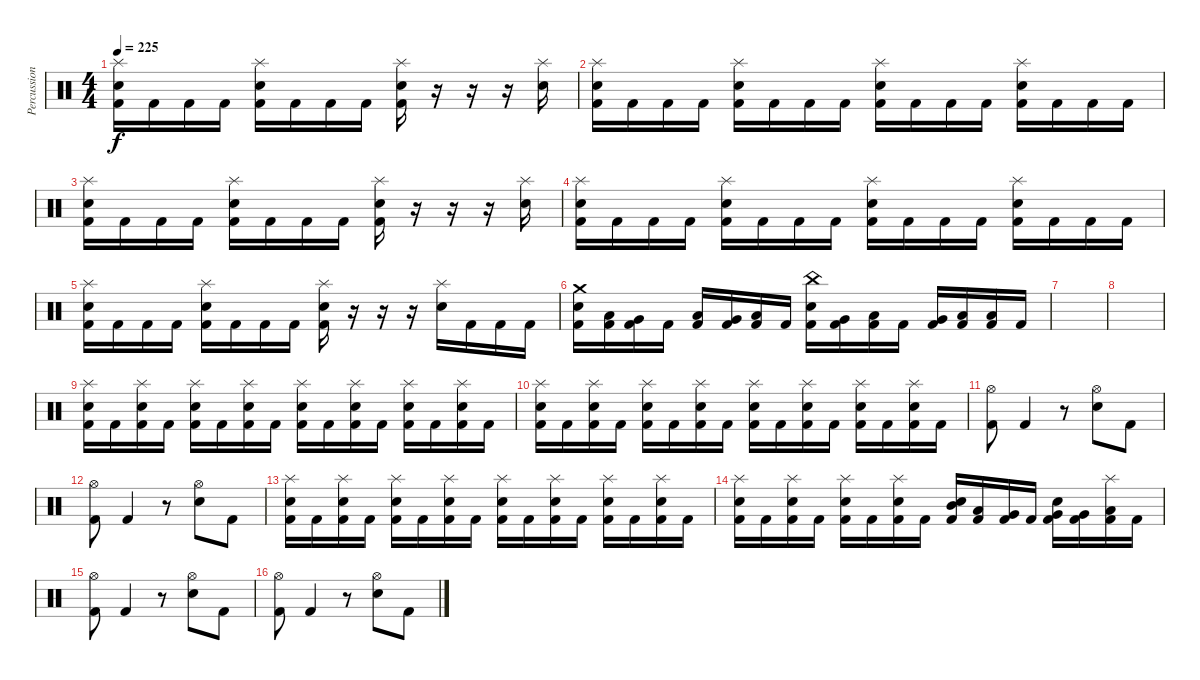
\track ("Percussion" "Percussion") {instrument percussion}
\staff {score}
\articulation defaults
\ts (4 4)
\tempo 225
\clef neutral
\ks c
("Splash (hit)" "Snare (hit) 2" "Kick (hit) 2").16{dy f} "Kick (hit) 2".16 "Kick (hit) 2".16 "Kick (hit) 2".16 ("Splash (hit)" "Snare (hit) 2" "Kick (hit) 2").16 "Kick (hit) 2".16 "Kick (hit) 2".16 "Kick (hit) 2".16 ("Splash (hit)" "Snare (hit) 2" "Kick (hit) 2").16 r.16 r.16 r.16 ("Splash (hit)" "Snare (hit) 2").16 |
("Splash (hit)" "Snare (hit) 2" "Kick (hit) 2").16 "Kick (hit) 2".16 "Kick (hit) 2".16 "Kick (hit) 2".16 ("Splash (hit)" "Snare (hit) 2" "Kick (hit) 2").16 "Kick (hit) 2".16 "Kick (hit) 2".16 "Kick (hit) 2".16 ("Splash (hit)" "Snare (hit) 2" "Kick (hit) 2").16 "Kick (hit) 2".16 "Kick (hit) 2".16 "Kick (hit) 2".16 ("Splash (hit)" "Snare (hit) 2" "Kick (hit) 2").16 "Kick (hit) 2".16 "Kick (hit) 2".16 "Kick (hit) 2".16 |
("Splash (hit)" "Snare (hit) 2" "Kick (hit) 2").16 "Kick (hit) 2".16 "Kick (hit) 2".16 "Kick (hit) 2".16 ("Splash (hit)" "Snare (hit) 2" "Kick (hit) 2").16 "Kick (hit) 2".16 "Kick (hit) 2".16 "Kick (hit) 2".16 ("Splash (hit)" "Snare (hit) 2" "Kick (hit) 2").16 r.16 r.16 r.16 ("Splash (hit)" "Snare (hit) 2").16 |
("Splash (hit)" "Snare (hit) 2" "Kick (hit) 2").16 "Kick (hit) 2".16 "Kick (hit) 2".16 "Kick (hit) 2".16 ("Splash (hit)" "Snare (hit) 2" "Kick (hit) 2").16 "Kick (hit) 2".16 "Kick (hit) 2".16 "Kick (hit) 2".16 ("Splash (hit)" "Snare (hit) 2" "Kick (hit) 2").16 "Kick (hit) 2".16 "Kick (hit) 2".16 "Kick (hit) 2".16 ("Splash (hit)" "Snare (hit) 2" "Kick (hit) 2").16 "Kick (hit) 2".16 "Kick (hit) 2".16 "Kick (hit) 2".16 |
("Splash (hit)" "Snare (hit) 2" "Kick (hit) 2").16 "Kick (hit) 2".16 "Kick (hit) 2".16 "Kick (hit) 2".16 ("Splash (hit)" "Snare (hit) 2" "Kick (hit) 2").16 "Kick (hit) 2".16 "Kick (hit) 2".16 "Kick (hit) 2".16 ("Splash (hit)" "Snare (hit) 2" "Kick (hit) 2").16 r.16 r.16 r.16 ("Splash (hit)" "Snare (hit) 2").16 "Kick (hit) 2".16 "Kick (hit) 2".16 "Kick (hit) 2".16 |
("Crash medium (hit)" "Snare (hit) 2" "Kick (hit) 2").16 ("Low Tom (hit)" "Kick (hit) 2").16 ("Very Low Tom (hit)" "Kick (hit) 2").16 "Kick (hit) 2".16 ("Low Tom (hit)" "Kick (hit) 2").16 ("Very Low Tom (hit)" "Kick (hit) 2").16 ("Low Floor Tom (hit)" "Kick (hit) 2").16 "Kick (hit) 2".16 ("China (hit)" "Snare (hit) 2" "Kick (hit) 2").16 ("Very Low Tom (hit)" "Kick (hit) 2").16 ("Low Floor Tom (hit)" "Kick (hit) 2").16 "Kick (hit) 2".16 ("Very Low Tom (hit)" "Kick (hit) 2").16 ("Low Floor Tom (hit)" "Kick (hit) 2").16 ("Low Floor Tom (hit)" "Kick (hit) 2").16 "Kick (hit) 2".16 |
|
|
("Splash (hit)" "Snare (hit) 2" "Kick (hit) 2").16 "Kick (hit) 2".16 ("Splash (hit)" "Snare (hit) 2" "Kick (hit) 2").16 "Kick (hit) 2".16 ("Splash (hit)" "Snare (hit) 2" "Kick (hit) 2").16 "Kick (hit) 2".16 ("Splash (hit)" "Snare (hit) 2" "Kick (hit) 2").16 "Kick (hit) 2".16 ("Splash (hit)" "Snare (hit) 2" "Kick (hit) 2").16 "Kick (hit) 2".16 ("Splash (hit)" "Snare (hit) 2" "Kick (hit) 2").16 "Kick (hit) 2".16 ("Splash (hit)" "Snare (hit) 2" "Kick (hit) 2").16 "Kick (hit) 2".16 ("Splash (hit)" "Snare (hit) 2" "Kick (hit) 2").16 "Kick (hit) 2".16 |
("Splash (hit)" "Snare (hit) 2" "Kick (hit) 2").16 "Kick (hit) 2".16 ("Splash (hit)" "Snare (hit) 2" "Kick (hit) 2").16 "Kick (hit) 2".16 ("Splash (hit)" "Snare (hit) 2" "Kick (hit) 2").16 "Kick (hit) 2".16 ("Splash (hit)" "Snare (hit) 2" "Kick (hit) 2").16 "Kick (hit) 2".16 ("Splash (hit)" "Snare (hit) 2" "Kick (hit) 2").16 "Kick (hit) 2".16 ("Splash (hit)" "Snare (hit) 2" "Kick (hit) 2").16 "Kick (hit) 2".16 ("Splash (hit)" "Snare (hit) 2" "Kick (hit) 2").16 "Kick (hit) 2".16 ("Splash (hit)" "Snare (hit) 2" "Kick (hit) 2").16 "Kick (hit) 2".16 |
("Kick (hit) 2" "Hi-Hat (open)").8 "Kick (hit) 2".4 r.8 ("Hi-Hat (open)" "Snare (hit) 2").8 "Kick (hit) 2".8 |
("Kick (hit) 2" "Hi-Hat (open)").8 "Kick (hit) 2".4 r.8 ("Hi-Hat (open)" "Snare (hit) 2").8 "Kick (hit) 2".8 |
("Splash (hit)" "Snare (hit) 2" "Kick (hit) 2").16 "Kick (hit) 2".16 ("Splash (hit)" "Snare (hit) 2" "Kick (hit) 2").16 "Kick (hit) 2".16 ("Splash (hit)" "Snare (hit) 2" "Kick (hit) 2").16 "Kick (hit) 2".16 ("Splash (hit)" "Snare (hit) 2" "Kick (hit) 2").16 "Kick (hit) 2".16 ("Splash (hit)" "Snare (hit) 2" "Kick (hit) 2").16 "Kick (hit) 2".16 ("Splash (hit)" "Snare (hit) 2" "Kick (hit) 2").16 "Kick (hit) 2".16 ("Splash (hit)" "Snare (hit) 2" "Kick (hit) 2").16 "Kick (hit) 2".16 ("Splash (hit)" "Snare (hit) 2" "Kick (hit) 2").16 "Kick (hit) 2".16 |
("Splash (hit)" "Snare (hit) 2" "Kick (hit) 2").16 "Kick (hit) 2".16 ("Splash (hit)" "Snare (hit) 2" "Kick (hit) 2").16 "Kick (hit) 2".16 ("Splash (hit)" "Snare (hit) 2" "Kick (hit) 2").16 "Kick (hit) 2".16 ("Splash (hit)" "Snare (hit) 2" "Kick (hit) 2").16 "Kick (hit) 2".16 ("Snare (hit) 2" "Mid Tom (hit)" "Kick (hit) 2").16 ("Low Tom (hit)" "Kick (hit) 2").16 ("Very Low Tom (hit)" "Kick (hit) 2").16 "Kick (hit) 2".16 ("Snare (hit) 2" "Very Low Tom (hit)" "Kick (hit) 2").16 ("Very Low Tom (hit)" "Kick (hit) 2").16 ("Splash (hit)" "Low Floor Tom (hit)" "Kick (hit) 2").16 "Kick (hit) 2".16 |
("Kick (hit) 2" "Hi-Hat (open)").8 "Kick (hit) 2".4 r.8 ("Hi-Hat (open)" "Snare (hit) 2").8 "Kick (hit) 2".8 |
("Kick (hit) 2" "Hi-Hat (open)").8 "Kick (hit) 2".4 r.8 ("Hi-Hat (open)" "Snare (hit) 2").8 "Kick (hit) 2".8
